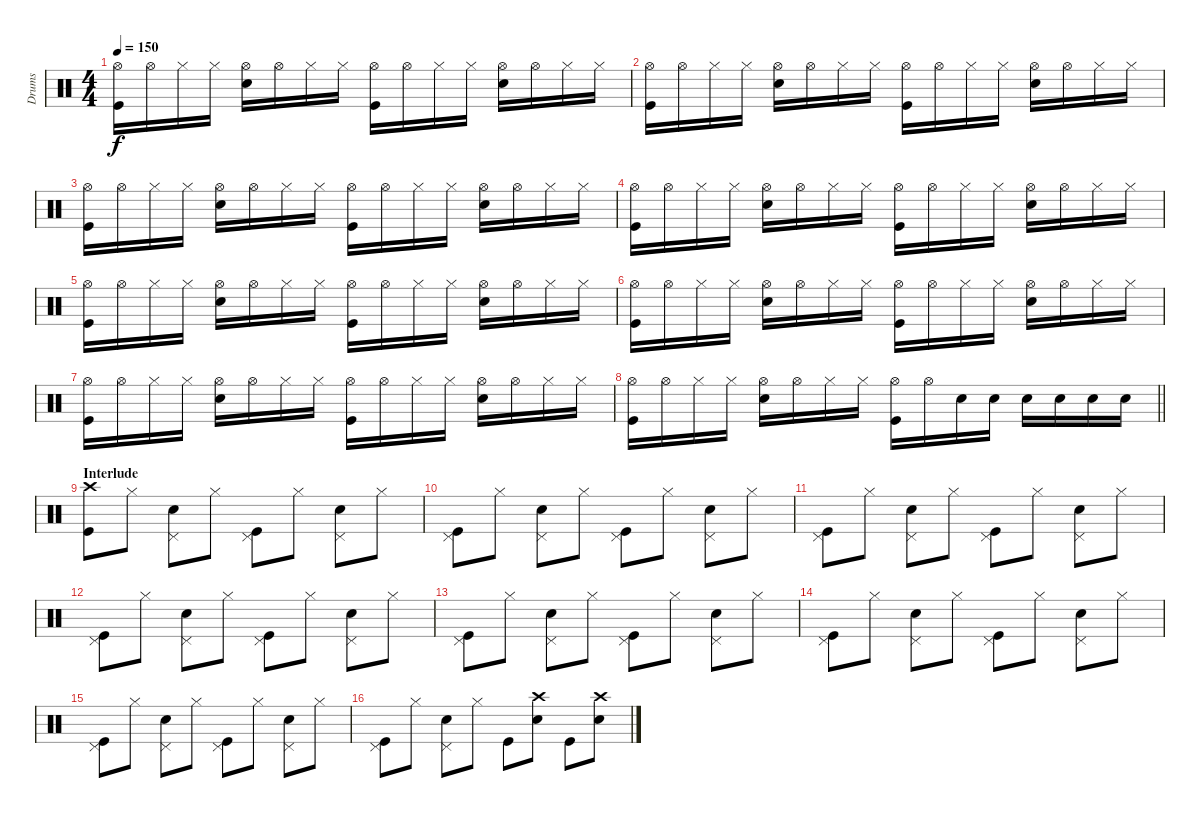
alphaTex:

\track ("Drums" "Drums") {instrument percussion}
\staff {score}
\articulation defaults
\ts (4 4)
\tempo 150
\clef neutral
\ks c
("Hi-Hat (open)" "Kick (hit)").16{dy f} "Hi-Hat (open)".16 "Hi-Hat (closed)".16 "Hi-Hat (closed)".16 ("Hi-Hat (open)" "Snare (hit) 2").16 "Hi-Hat (open)".16 "Hi-Hat (closed)".16 "Hi-Hat (closed)".16 ("Hi-Hat (open)" "Kick (hit)").16 "Hi-Hat (open)".16 "Hi-Hat (closed)".16 "Hi-Hat (closed)".16 ("Hi-Hat (open)" "Snare (hit) 2").16 "Hi-Hat (open)".16 "Hi-Hat (closed)".16 "Hi-Hat (closed)".16 |
("Hi-Hat (open)" "Kick (hit)").16 "Hi-Hat (open)".16 "Hi-Hat (closed)".16 "Hi-Hat (closed)".16 ("Hi-Hat (open)" "Snare (hit) 2").16 "Hi-Hat (open)".16 "Hi-Hat (closed)".16 "Hi-Hat (closed)".16 ("Hi-Hat (open)" "Kick (hit)").16 "Hi-Hat (open)".16 "Hi-Hat (closed)".16 "Hi-Hat (closed)".16 ("Hi-Hat (open)" "Snare (hit) 2").16 "Hi-Hat (open)".16 "Hi-Hat (closed)".16 "Hi-Hat (closed)".16 |
("Hi-Hat (open)" "Kick (hit)").16 "Hi-Hat (open)".16 "Hi-Hat (closed)".16 "Hi-Hat (closed)".16 ("Hi-Hat (open)" "Snare (hit) 2").16 "Hi-Hat (open)".16 "Hi-Hat (closed)".16 "Hi-Hat (closed)".16 ("Hi-Hat (open)" "Kick (hit)").16 "Hi-Hat (open)".16 "Hi-Hat (closed)".16 "Hi-Hat (closed)".16 ("Hi-Hat (open)" "Snare (hit) 2").16 "Hi-Hat (open)".16 "Hi-Hat (closed)".16 "Hi-Hat (closed)".16 |
("Hi-Hat (open)" "Kick (hit)").16 "Hi-Hat (open)".16 "Hi-Hat (closed)".16 "Hi-Hat (closed)".16 ("Hi-Hat (open)" "Snare (hit) 2").16 "Hi-Hat (open)".16 "Hi-Hat (closed)".16 "Hi-Hat (closed)".16 ("Hi-Hat (open)" "Kick (hit)").16 "Hi-Hat (open)".16 "Hi-Hat (closed)".16 "Hi-Hat (closed)".16 ("Hi-Hat (open)" "Snare (hit) 2").16 "Hi-Hat (open)".16 "Hi-Hat (closed)".16 "Hi-Hat (closed)".16 |
("Hi-Hat (open)" "Kick (hit)").16 "Hi-Hat (open)".16 "Hi-Hat (closed)".16 "Hi-Hat (closed)".16 ("Hi-Hat (open)" "Snare (hit) 2").16 "Hi-Hat (open)".16 "Hi-Hat (closed)".16 "Hi-Hat (closed)".16 ("Hi-Hat (open)" "Kick (hit)").16 "Hi-Hat (open)".16 "Hi-Hat (closed)".16 "Hi-Hat (closed)".16 ("Hi-Hat (open)" "Snare (hit) 2").16 "Hi-Hat (open)".16 "Hi-Hat (closed)".16 "Hi-Hat (closed)".16 |
("Hi-Hat (open)" "Kick (hit)").16 "Hi-Hat (open)".16 "Hi-Hat (closed)".16 "Hi-Hat (closed)".16 ("Hi-Hat (open)" "Snare (hit) 2").16 "Hi-Hat (open)".16 "Hi-Hat (closed)".16 "Hi-Hat (closed)".16 ("Hi-Hat (open)" "Kick (hit)").16 "Hi-Hat (open)".16 "Hi-Hat (closed)".16 "Hi-Hat (closed)".16 ("Hi-Hat (open)" "Snare (hit) 2").16 "Hi-Hat (open)".16 "Hi-Hat (closed)".16 "Hi-Hat (closed)".16 |
("Hi-Hat (open)" "Kick (hit)").16 "Hi-Hat (open)".16 "Hi-Hat (closed)".16 "Hi-Hat (closed)".16 ("Hi-Hat (open)" "Snare (hit) 2").16 "Hi-Hat (open)".16 "Hi-Hat (closed)".16 "Hi-Hat (closed)".16 ("Hi-Hat (open)" "Kick (hit)").16 "Hi-Hat (open)".16 "Hi-Hat (closed)".16 "Hi-Hat (closed)".16 ("Hi-Hat (open)" "Snare (hit) 2").16 "Hi-Hat (open)".16 "Hi-Hat (closed)".16 "Hi-Hat (closed)".16 |
\barLineRight lightlight
("Hi-Hat (open)" "Kick (hit)").16 "Hi-Hat (open)".16 "Hi-Hat (closed)".16 "Hi-Hat (closed)".16 ("Hi-Hat (open)" "Snare (hit) 2").16 "Hi-Hat (open)".16 "Hi-Hat (closed)".16 "Hi-Hat (closed)".16 ("Hi-Hat (open)" "Kick (hit)").16 "Hi-Hat (open)".16 "Snare (hit) 2".16 "Snare (hit) 2".16 "Snare (hit) 2".16 "Snare (hit) 2".16 "Snare (hit) 2".16 "Snare (hit) 2".16 |
\section ("" "Interlude")
("Crash high (hit)" "Kick (hit)").8 "Hi-Hat (closed)".8 ("Pedal Hi-Hat (hit)" "Snare (hit) 2").8 "Hi-Hat (closed)".8 ("Pedal Hi-Hat (hit)" "Kick (hit)").8 "Hi-Hat (closed)".8 ("Pedal Hi-Hat (hit)" "Snare (hit) 2").8 "Hi-Hat (closed)".8 |
("Pedal Hi-Hat (hit)" "Kick (hit)").8 "Hi-Hat (closed)".8 ("Pedal Hi-Hat (hit)" "Snare (hit) 2").8 "Hi-Hat (closed)".8 ("Pedal Hi-Hat (hit)" "Kick (hit)").8 "Hi-Hat (closed)".8 ("Pedal Hi-Hat (hit)" "Snare (hit) 2").8 "Hi-Hat (closed)".8 |
("Pedal Hi-Hat (hit)" "Kick (hit)").8 "Hi-Hat (closed)".8 ("Pedal Hi-Hat (hit)" "Snare (hit) 2").8 "Hi-Hat (closed)".8 ("Pedal Hi-Hat (hit)" "Kick (hit)").8 "Hi-Hat (closed)".8 ("Pedal Hi-Hat (hit)" "Snare (hit) 2").8 "Hi-Hat (closed)".8 |
("Pedal Hi-Hat (hit)" "Kick (hit)").8 "Hi-Hat (closed)".8 ("Pedal Hi-Hat (hit)" "Snare (hit) 2").8 "Hi-Hat (closed)".8 ("Pedal Hi-Hat (hit)" "Kick (hit)").8 "Hi-Hat (closed)".8 ("Pedal Hi-Hat (hit)" "Snare (hit) 2").8 "Hi-Hat (closed)".8 |
("Pedal Hi-Hat (hit)" "Kick (hit)").8 "Hi-Hat (closed)".8 ("Pedal Hi-Hat (hit)" "Snare (hit) 2").8 "Hi-Hat (closed)".8 ("Pedal Hi-Hat (hit)" "Kick (hit)").8 "Hi-Hat (closed)".8 ("Pedal Hi-Hat (hit)" "Snare (hit) 2").8 "Hi-Hat (closed)".8 |
("Pedal Hi-Hat (hit)" "Kick (hit)").8 "Hi-Hat (closed)".8 ("Pedal Hi-Hat (hit)" "Snare (hit) 2").8 "Hi-Hat (closed)".8 ("Pedal Hi-Hat (hit)" "Kick (hit)").8 "Hi-Hat (closed)".8 ("Pedal Hi-Hat (hit)" "Snare (hit) 2").8 "Hi-Hat (closed)".8 |
("Pedal Hi-Hat (hit)" "Kick (hit)").8 "Hi-Hat (closed)".8 ("Pedal Hi-Hat (hit)" "Snare (hit) 2").8 "Hi-Hat (closed)".8 ("Pedal Hi-Hat (hit)" "Kick (hit)").8 "Hi-Hat (closed)".8 ("Pedal Hi-Hat (hit)" "Snare (hit) 2").8 "Hi-Hat (closed)".8 |
("Pedal Hi-Hat (hit)" "Kick (hit)").8 "Hi-Hat (closed)".8 ("Pedal Hi-Hat (hit)" "Snare (hit) 2").8 "Hi-Hat (closed)".8 "Kick (hit)".8 ("Crash high (hit)" "Snare (hit) 2").8 "Kick (hit)".8 ("Crash high (hit)" "Snare (hit) 2").8
